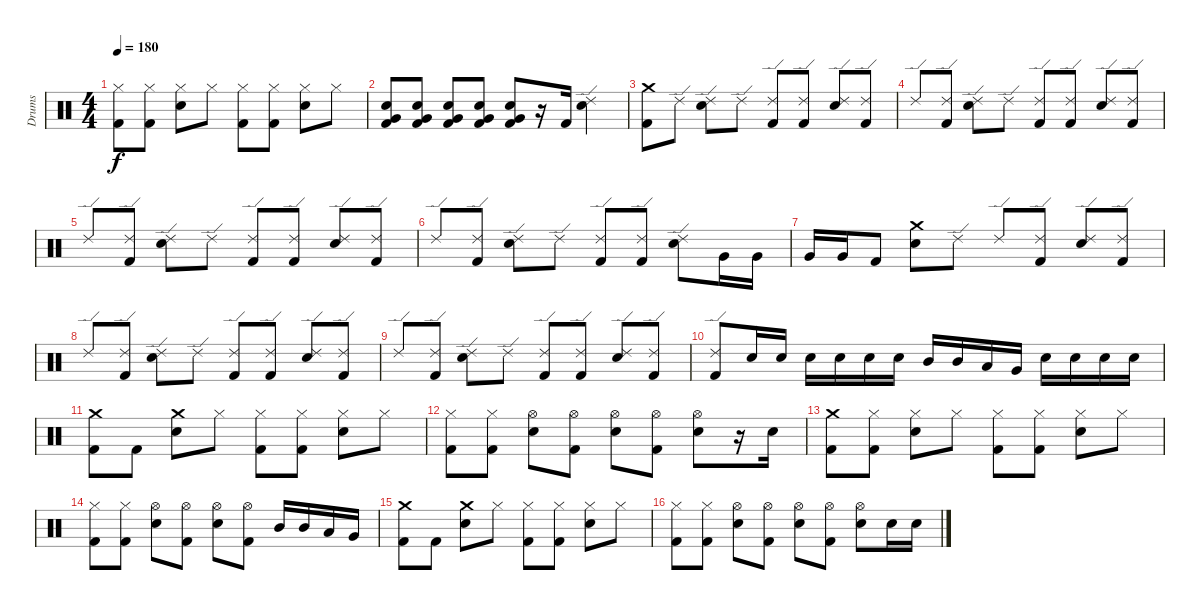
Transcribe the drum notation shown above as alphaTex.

\track ("Drums" "Drums") {instrument percussion}
\staff {score}
\articulation defaults
\ts (4 4)
\tempo 180
\clef neutral
\ks c
("Hi-Hat (closed)" "Kick (hit) 2").8{dy f} ("Hi-Hat (closed)" "Kick (hit) 2").8 ("Hi-Hat (closed)" "Electric Snare (hit)").8 "Hi-Hat (closed)".8 ("Hi-Hat (closed)" "Kick (hit) 2").8 ("Hi-Hat (closed)" "Kick (hit) 2").8 ("Hi-Hat (closed)" "Electric Snare (hit)").8 "Hi-Hat (closed)".8 |
("Very Low Tom (hit)" "Electric Snare (hit)" "Kick (hit) 2").8 ("Very Low Tom (hit)" "Electric Snare (hit)" "Kick (hit) 2").8 ("Very Low Tom (hit)" "Electric Snare (hit)" "Kick (hit) 2").8 ("Very Low Tom (hit)" "Electric Snare (hit)" "Kick (hit) 2").8 ("Very Low Tom (hit)" "Electric Snare (hit)" "Kick (hit) 2").8 r.16 "Kick (hit) 2".16 ("Ride (edge) 2" "Electric Snare (hit)").4 |
("Crash medium (hit)" "Kick (hit) 2").8 "Ride (edge) 2".8 ("Ride (edge) 2" "Electric Snare (hit)").8 "Ride (edge) 2".8 ("Ride (edge) 2" "Kick (hit) 2").8 ("Ride (edge) 2" "Kick (hit) 2").8 ("Ride (edge) 2" "Electric Snare (hit)").8 ("Ride (edge) 2" "Kick (hit) 2").8 |
"Ride (edge) 2".8 ("Ride (edge) 2" "Kick (hit) 2").8 ("Ride (edge) 2" "Electric Snare (hit)").8 "Ride (edge) 2".8 ("Ride (edge) 2" "Kick (hit) 2").8 ("Ride (edge) 2" "Kick (hit) 2").8 ("Ride (edge) 2" "Electric Snare (hit)").8 ("Ride (edge) 2" "Kick (hit) 2").8 |
"Ride (edge) 2".8 ("Ride (edge) 2" "Kick (hit) 2").8 ("Ride (edge) 2" "Electric Snare (hit)").8 "Ride (edge) 2".8 ("Ride (edge) 2" "Kick (hit) 2").8 ("Ride (edge) 2" "Kick (hit) 2").8 ("Ride (edge) 2" "Electric Snare (hit)").8 ("Ride (edge) 2" "Kick (hit) 2").8 |
"Ride (edge) 2".8 ("Ride (edge) 2" "Kick (hit) 2").8 ("Ride (edge) 2" "Electric Snare (hit)").8 "Ride (edge) 2".8 ("Ride (edge) 2" "Kick (hit) 2").8 ("Ride (edge) 2" "Kick (hit) 2").8 ("Ride (edge) 2" "Electric Snare (hit)").8 "Very Low Tom (hit)".16 "Very Low Tom (hit)".16 |
"Very Low Tom (hit)".16 "Very Low Tom (hit)".16 "Kick (hit) 2".8 ("Crash medium (hit)" "Electric Snare (hit)").8 "Ride (edge) 2".8 "Ride (edge) 2".8 ("Ride (edge) 2" "Kick (hit) 2").8 ("Ride (edge) 2" "Electric Snare (hit)").8 ("Ride (edge) 2" "Kick (hit) 2").8 |
"Ride (edge) 2".8 ("Ride (edge) 2" "Kick (hit) 2").8 ("Ride (edge) 2" "Electric Snare (hit)").8 "Ride (edge) 2".8 ("Ride (edge) 2" "Kick (hit) 2").8 ("Ride (edge) 2" "Kick (hit) 2").8 ("Ride (edge) 2" "Electric Snare (hit)").8 ("Ride (edge) 2" "Kick (hit) 2").8 |
"Ride (edge) 2".8 ("Ride (edge) 2" "Kick (hit) 2").8 ("Ride (edge) 2" "Electric Snare (hit)").8 "Ride (edge) 2".8 ("Ride (edge) 2" "Kick (hit) 2").8 ("Ride (edge) 2" "Kick (hit) 2").8 ("Ride (edge) 2" "Electric Snare (hit)").8 ("Ride (edge) 2" "Kick (hit) 2").8 |
("Ride (edge) 2" "Kick (hit) 2").8 "Electric Snare (hit)".16 "Electric Snare (hit)".16 "Electric Snare (hit)".16 "Electric Snare (hit)".16 "Electric Snare (hit)".16 "Electric Snare (hit)".16 "Mid Tom (hit)".16 "Mid Tom (hit)".16 "Low Tom (hit)".16 "Very Low Tom (hit)".16 "Electric Snare (hit)".16 "Electric Snare (hit)".16 "Electric Snare (hit)".16 "Electric Snare (hit)".16 |
("Crash medium (hit)" "Kick (hit) 2").8 "Kick (hit) 2".8 ("Crash medium (hit)" "Electric Snare (hit)").8 "Hi-Hat (closed)".8 ("Hi-Hat (closed)" "Kick (hit) 2").8 ("Hi-Hat (closed)" "Kick (hit) 2").8 ("Hi-Hat (closed)" "Electric Snare (hit)").8 "Hi-Hat (closed)".8 |
("Hi-Hat (closed)" "Kick (hit) 2").8 ("Hi-Hat (closed)" "Kick (hit) 2").8 ("Hi-Hat (open)" "Electric Snare (hit)").8 ("Hi-Hat (open)" "Kick (hit) 2").8 ("Hi-Hat (open)" "Electric Snare (hit)").8 ("Hi-Hat (open)" "Kick (hit) 2").8 ("Hi-Hat (open)" "Electric Snare (hit)").8 r.16 "Electric Snare (hit)".16 |
("Crash medium (hit)" "Kick (hit) 2").8 ("Hi-Hat (closed)" "Kick (hit) 2").8 ("Hi-Hat (closed)" "Electric Snare (hit)").8 "Hi-Hat (closed)".8 ("Hi-Hat (closed)" "Kick (hit) 2").8 ("Hi-Hat (closed)" "Kick (hit) 2").8 ("Hi-Hat (closed)" "Electric Snare (hit)").8 "Hi-Hat (closed)".8 |
("Hi-Hat (closed)" "Kick (hit) 2").8 ("Hi-Hat (closed)" "Kick (hit) 2").8 ("Hi-Hat (open)" "Electric Snare (hit)").8 ("Hi-Hat (open)" "Kick (hit) 2").8 ("Hi-Hat (open)" "Electric Snare (hit)").8 ("Hi-Hat (open)" "Kick (hit) 2").8 "Mid Tom (hit)".16 "Mid Tom (hit)".16 "Low Tom (hit)".16 "Very Low Tom (hit)".16 |
("Crash medium (hit)" "Kick (hit) 2").8 "Kick (hit) 2".8 ("Crash medium (hit)" "Electric Snare (hit)").8 "Hi-Hat (closed)".8 ("Hi-Hat (closed)" "Kick (hit) 2").8 ("Hi-Hat (closed)" "Kick (hit) 2").8 ("Hi-Hat (closed)" "Electric Snare (hit)").8 "Hi-Hat (closed)".8 |
("Hi-Hat (closed)" "Kick (hit) 2").8 ("Hi-Hat (closed)" "Kick (hit) 2").8 ("Hi-Hat (open)" "Electric Snare (hit)").8 ("Hi-Hat (open)" "Kick (hit) 2").8 ("Hi-Hat (open)" "Electric Snare (hit)").8 ("Hi-Hat (open)" "Kick (hit) 2").8 ("Hi-Hat (open)" "Electric Snare (hit)").8 "Electric Snare (hit)".16 "Electric Snare (hit)".16
